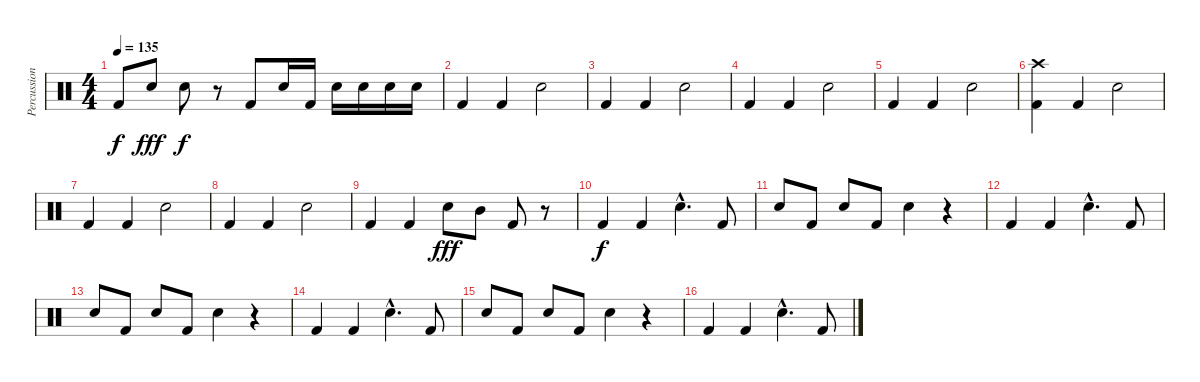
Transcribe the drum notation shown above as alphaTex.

\track ("Percussion1" "Percussion") {instrument percussion}
\staff {score}
\articulation defaults
\ts (4 4)
\tempo 135
\clef neutral
\ks c "Kick (hit) 2".8{dy f} "Electric Snare (hit)".8{dy fff} "Electric Snare (hit)".8{dy f}
r.8 "Kick (hit) 2".8 "Electric Snare (hit)".16 "Kick (hit) 2".16 "Electric Snare (hit)".16 "Snare (hit) 2".16 "Electric Snare (hit)".16 "Snare (hit) 2".16 |
"Kick (hit) 2".4 "Kick (hit) 2".4 "Snare (hit) 2".2 |
"Kick (hit) 2".4 "Kick (hit) 2".4 "Snare (hit) 2".2 |
"Kick (hit) 2".4 "Kick (hit) 2".4 "Snare (hit) 2".2 |
"Kick (hit) 2".4 "Kick (hit) 2".4 "Snare (hit) 2".2 |
("Crash high (hit)" "Kick (hit) 2").4 "Kick (hit) 2".4 "Snare (hit) 2".2 |
"Kick (hit) 2".4 "Kick (hit) 2".4 "Snare (hit) 2".2 |
"Kick (hit) 2".4 "Kick (hit) 2".4 "Snare (hit) 2".2 |
"Kick (hit) 2".4 "Kick (hit) 2".4 "Electric Snare (hit)".8{dy fff} "Mid Tom (hit)".8 "Kick (hit) 2".8 r.8 |
"Kick (hit) 2".4{dy f} "Kick (hit) 2".4 "Electric Snare (hit)"{hac}.4{d} "Kick (hit) 2".8 |
"Electric Snare (hit)".8 "Kick (hit) 2".8 "Electric Snare (hit)".8 "Kick (hit) 2".8 "Electric Snare (hit)".4 r.4 |
"Kick (hit) 2".4 "Kick (hit) 2".4 "Electric Snare (hit)"{hac}.4{d} "Kick (hit) 2".8 |
"Electric Snare (hit)".8 "Kick (hit) 2".8 "Electric Snare (hit)".8 "Kick (hit) 2".8 "Electric Snare (hit)".4 r.4 |
"Kick (hit) 2".4 "Kick (hit) 2".4 "Electric Snare (hit)"{hac}.4{d} "Kick (hit) 2".8 |
"Electric Snare (hit)".8 "Kick (hit) 2".8 "Electric Snare (hit)".8 "Kick (hit) 2".8 "Electric Snare (hit)".4 r.4 |
"Kick (hit) 2".4 "Kick (hit) 2".4 "Electric Snare (hit)"{hac}.4{d} "Kick (hit) 2".8
